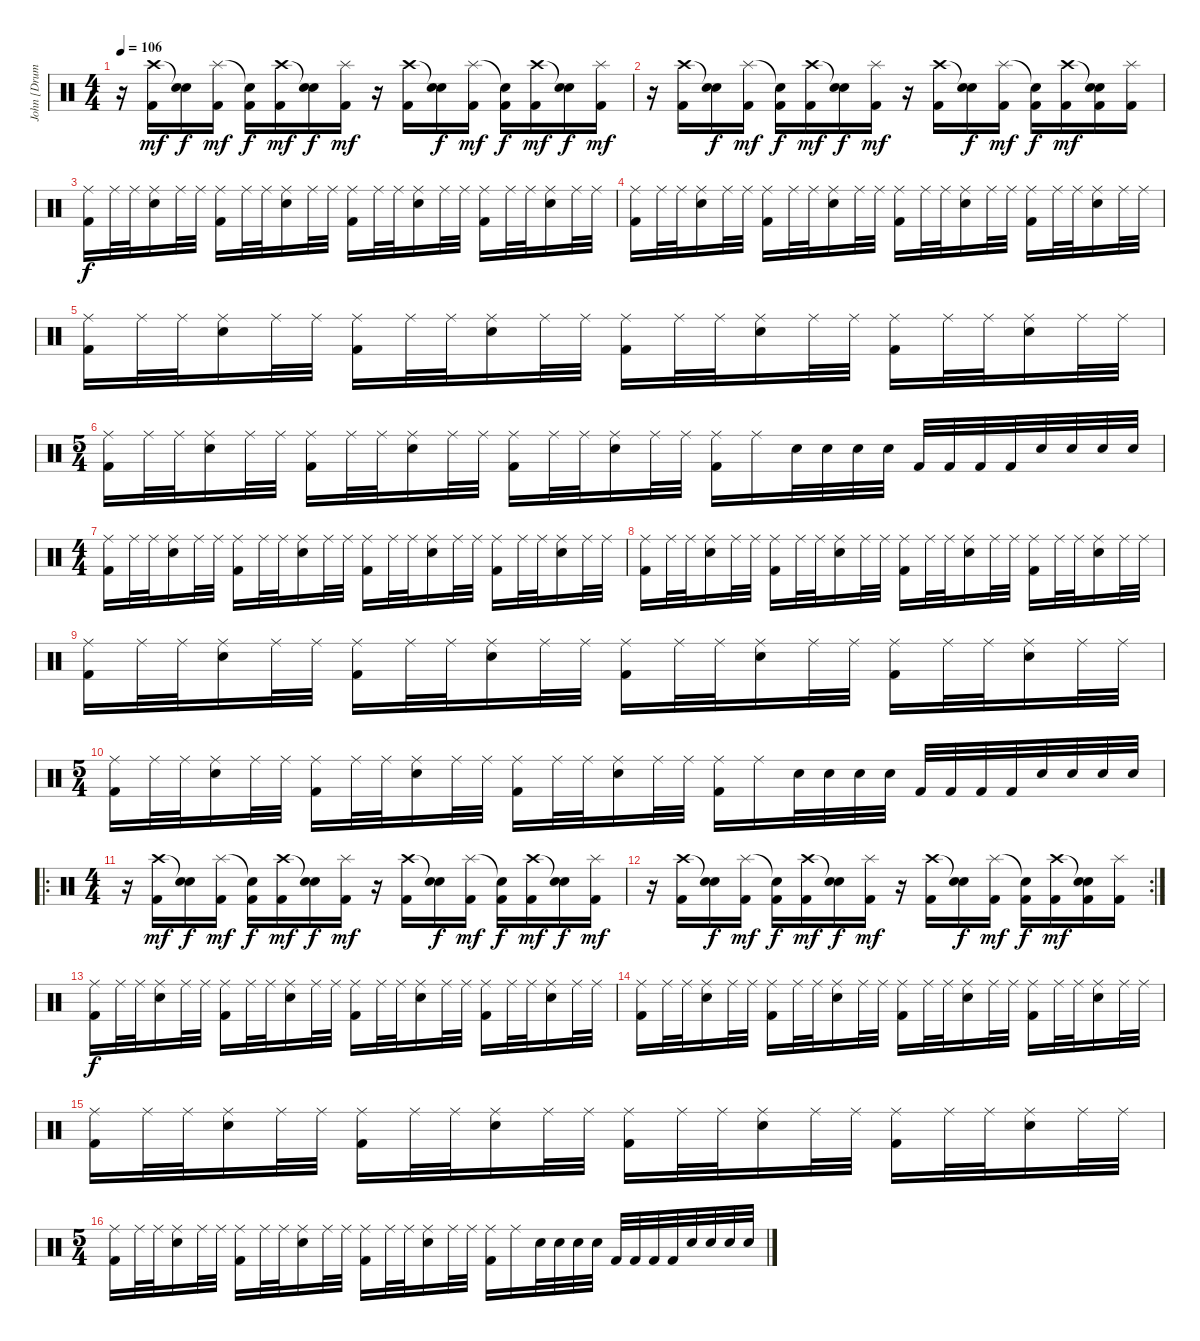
\track ("John [Drums]" "John [Drum") {instrument percussion}
\staff {score}
\articulation defaults
\ts (4 4)
\tempo 106
\clef neutral
\ks c
r.16{dy mf} ("Crash high (hit)" "Kick (hit) 2").16 ("Snare (hit)"{t} "Electric Snare (hit)").16{dy f} ("Splash (hit)" "Kick (hit) 2").16{dy mf} ("Snare (hit)"{t} "Kick (hit) 2").16{dy f} ("Crash high (hit)" "Kick (hit) 2").16{dy mf} ("Snare (hit)"{t} "Electric Snare (hit)").16{dy f} ("Splash (hit)" "Kick (hit) 2").16{dy mf} r.16 ("Crash high (hit)" "Kick (hit) 2").16 ("Snare (hit)"{t} "Electric Snare (hit)").16{dy f} ("Splash (hit)" "Kick (hit) 2").16{dy mf} ("Snare (hit)"{t} "Kick (hit) 2").16{dy f} ("Crash high (hit)" "Kick (hit) 2").16{dy mf} ("Snare (hit)"{t} "Electric Snare (hit)").16{dy f} ("Splash (hit)" "Kick (hit) 2").16{dy mf} |
r.16 ("Crash high (hit)" "Kick (hit) 2").16 ("Snare (hit)"{t} "Electric Snare (hit)").16{dy f} ("Splash (hit)" "Kick (hit) 2").16{dy mf} ("Snare (hit)"{t} "Kick (hit) 2").16{dy f} ("Crash high (hit)" "Kick (hit) 2").16{dy mf} ("Snare (hit)"{t} "Electric Snare (hit)").16{dy f} ("Splash (hit)" "Kick (hit) 2").16{dy mf} r.16 ("Crash high (hit)" "Kick (hit) 2").16 ("Snare (hit)"{t} "Electric Snare (hit)").16{dy f} ("Splash (hit)" "Kick (hit) 2").16{dy mf} ("Snare (hit)"{t} "Kick (hit) 2").16{dy f} ("Crash high (hit)" "Kick (hit) 2").16{dy mf} ("Snare (hit)"{t} "Electric Snare (hit)" "Kick (hit) 2").16 ("Splash (hit)" "Kick (hit) 2").16 |
("Ride (middle)" "Kick (hit) 2").16{dy f} "Ride (middle)".32 "Ride (middle)".32 ("Ride (middle)" "Electric Snare (hit)").16 "Ride (middle)".32 "Ride (middle)".32 ("Ride (middle)" "Kick (hit) 2").16 "Ride (middle)".32 "Ride (middle)".32 ("Ride (middle)" "Electric Snare (hit)").16 "Ride (middle)".32 "Ride (middle)".32 ("Ride (middle)" "Kick (hit) 2").16 "Ride (middle)".32 "Ride (middle)".32 ("Ride (middle)" "Electric Snare (hit)").16 "Ride (middle)".32 "Ride (middle)".32 ("Ride (middle)" "Kick (hit) 2").16 "Ride (middle)".32 "Ride (middle)".32 ("Ride (middle)" "Electric Snare (hit)").16 "Ride (middle)".32 "Ride (middle)".32 |
("Ride (middle)" "Kick (hit) 2").16 "Ride (middle)".32 "Ride (middle)".32 ("Ride (middle)" "Electric Snare (hit)").16 "Ride (middle)".32 "Ride (middle)".32 ("Ride (middle)" "Kick (hit) 2").16 "Ride (middle)".32 "Ride (middle)".32 ("Ride (middle)" "Electric Snare (hit)").16 "Ride (middle)".32 "Ride (middle)".32 ("Ride (middle)" "Kick (hit) 2").16 "Ride (middle)".32 "Ride (middle)".32 ("Ride (middle)" "Electric Snare (hit)").16 "Ride (middle)".32 "Ride (middle)".32 ("Ride (middle)" "Kick (hit) 2").16 "Ride (middle)".32 "Ride (middle)".32 ("Ride (middle)" "Electric Snare (hit)").16 "Ride (middle)".32 "Ride (middle)".32 |
("Ride (middle)" "Kick (hit) 2").16 "Ride (middle)".32 "Ride (middle)".32 ("Ride (middle)" "Electric Snare (hit)").16 "Ride (middle)".32 "Ride (middle)".32 ("Ride (middle)" "Kick (hit) 2").16 "Ride (middle)".32 "Ride (middle)".32 ("Ride (middle)" "Electric Snare (hit)").16 "Ride (middle)".32 "Ride (middle)".32 ("Ride (middle)" "Kick (hit) 2").16 "Ride (middle)".32 "Ride (middle)".32 ("Ride (middle)" "Electric Snare (hit)").16 "Ride (middle)".32 "Ride (middle)".32 ("Ride (middle)" "Kick (hit) 2").16 "Ride (middle)".32 "Ride (middle)".32 ("Ride (middle)" "Electric Snare (hit)").16 "Ride (middle)".32 "Ride (middle)".32 |
\ts (5 4)
("Ride (middle)" "Kick (hit) 2").16 "Ride (middle)".32 "Ride (middle)".32 ("Ride (middle)" "Electric Snare (hit)").16 "Ride (middle)".32 "Ride (middle)".32 ("Ride (middle)" "Kick (hit) 2").16 "Ride (middle)".32 "Ride (middle)".32 ("Ride (middle)" "Electric Snare (hit)").16 "Ride (middle)".32 "Ride (middle)".32 ("Ride (middle)" "Kick (hit) 2").16 "Ride (middle)".32 "Ride (middle)".32 ("Ride (middle)" "Electric Snare (hit)").16 "Ride (middle)".32 "Ride (middle)".32 ("Ride (middle)" "Kick (hit) 2").16 "Ride (middle)".16 "Electric Snare (hit)".32 "Electric Snare (hit)".32 "Electric Snare (hit)".32 "Electric Snare (hit)".32 "Kick (hit) 2".32 "Kick (hit) 2".32 "Kick (hit) 2".32 "Kick (hit) 2".32 "Electric Snare (hit)".32 "Electric Snare (hit)".32 "Electric Snare (hit)".32 "Electric Snare (hit)".32 |
\ts (4 4)
("Ride (middle)" "Kick (hit) 2").16 "Ride (middle)".32 "Ride (middle)".32 ("Ride (middle)" "Electric Snare (hit)").16 "Ride (middle)".32 "Ride (middle)".32 ("Ride (middle)" "Kick (hit) 2").16 "Ride (middle)".32 "Ride (middle)".32 ("Ride (middle)" "Electric Snare (hit)").16 "Ride (middle)".32 "Ride (middle)".32 ("Ride (middle)" "Kick (hit) 2").16 "Ride (middle)".32 "Ride (middle)".32 ("Ride (middle)" "Electric Snare (hit)").16 "Ride (middle)".32 "Ride (middle)".32 ("Ride (middle)" "Kick (hit) 2").16 "Ride (middle)".32 "Ride (middle)".32 ("Ride (middle)" "Electric Snare (hit)").16 "Ride (middle)".32 "Ride (middle)".32 |
("Ride (middle)" "Kick (hit) 2").16 "Ride (middle)".32 "Ride (middle)".32 ("Ride (middle)" "Electric Snare (hit)").16 "Ride (middle)".32 "Ride (middle)".32 ("Ride (middle)" "Kick (hit) 2").16 "Ride (middle)".32 "Ride (middle)".32 ("Ride (middle)" "Electric Snare (hit)").16 "Ride (middle)".32 "Ride (middle)".32 ("Ride (middle)" "Kick (hit) 2").16 "Ride (middle)".32 "Ride (middle)".32 ("Ride (middle)" "Electric Snare (hit)").16 "Ride (middle)".32 "Ride (middle)".32 ("Ride (middle)" "Kick (hit) 2").16 "Ride (middle)".32 "Ride (middle)".32 ("Ride (middle)" "Electric Snare (hit)").16 "Ride (middle)".32 "Ride (middle)".32 |
("Ride (middle)" "Kick (hit) 2").16 "Ride (middle)".32 "Ride (middle)".32 ("Ride (middle)" "Electric Snare (hit)").16 "Ride (middle)".32 "Ride (middle)".32 ("Ride (middle)" "Kick (hit) 2").16 "Ride (middle)".32 "Ride (middle)".32 ("Ride (middle)" "Electric Snare (hit)").16 "Ride (middle)".32 "Ride (middle)".32 ("Ride (middle)" "Kick (hit) 2").16 "Ride (middle)".32 "Ride (middle)".32 ("Ride (middle)" "Electric Snare (hit)").16 "Ride (middle)".32 "Ride (middle)".32 ("Ride (middle)" "Kick (hit) 2").16 "Ride (middle)".32 "Ride (middle)".32 ("Ride (middle)" "Electric Snare (hit)").16 "Ride (middle)".32 "Ride (middle)".32 |
\ts (5 4)
("Ride (middle)" "Kick (hit) 2").16 "Ride (middle)".32 "Ride (middle)".32 ("Ride (middle)" "Electric Snare (hit)").16 "Ride (middle)".32 "Ride (middle)".32 ("Ride (middle)" "Kick (hit) 2").16 "Ride (middle)".32 "Ride (middle)".32 ("Ride (middle)" "Electric Snare (hit)").16 "Ride (middle)".32 "Ride (middle)".32 ("Ride (middle)" "Kick (hit) 2").16 "Ride (middle)".32 "Ride (middle)".32 ("Ride (middle)" "Electric Snare (hit)").16 "Ride (middle)".32 "Ride (middle)".32 ("Ride (middle)" "Kick (hit) 2").16 "Ride (middle)".16 "Electric Snare (hit)".32 "Electric Snare (hit)".32 "Electric Snare (hit)".32 "Electric Snare (hit)".32 "Kick (hit) 2".32 "Kick (hit) 2".32 "Kick (hit) 2".32 "Kick (hit) 2".32 "Electric Snare (hit)".32 "Electric Snare (hit)".32 "Electric Snare (hit)".32 "Electric Snare (hit)".32 |
\ro
\ts (4 4)
r.16 ("Crash high (hit)" "Kick (hit) 2").16{dy mf} ("Snare (hit)"{t} "Electric Snare (hit)").16{dy f} ("Splash (hit)" "Kick (hit) 2").16{dy mf} ("Snare (hit)"{t} "Kick (hit) 2").16{dy f} ("Crash high (hit)" "Kick (hit) 2").16{dy mf} ("Snare (hit)"{t} "Electric Snare (hit)").16{dy f} ("Splash (hit)" "Kick (hit) 2").16{dy mf} r.16 ("Crash high (hit)" "Kick (hit) 2").16 ("Snare (hit)"{t} "Electric Snare (hit)").16{dy f} ("Splash (hit)" "Kick (hit) 2").16{dy mf} ("Snare (hit)"{t} "Kick (hit) 2").16{dy f} ("Crash high (hit)" "Kick (hit) 2").16{dy mf} ("Snare (hit)"{t} "Electric Snare (hit)").16{dy f} ("Splash (hit)" "Kick (hit) 2").16{dy mf} |
\rc 2
r.16 ("Crash high (hit)" "Kick (hit) 2").16 ("Snare (hit)"{t} "Electric Snare (hit)").16{dy f} ("Splash (hit)" "Kick (hit) 2").16{dy mf} ("Snare (hit)"{t} "Kick (hit) 2").16{dy f} ("Crash high (hit)" "Kick (hit) 2").16{dy mf} ("Snare (hit)"{t} "Electric Snare (hit)").16{dy f} ("Splash (hit)" "Kick (hit) 2").16{dy mf} r.16 ("Crash high (hit)" "Kick (hit) 2").16 ("Snare (hit)"{t} "Electric Snare (hit)").16{dy f} ("Splash (hit)" "Kick (hit) 2").16{dy mf} ("Snare (hit)"{t} "Kick (hit) 2").16{dy f} ("Crash high (hit)" "Kick (hit) 2").16{dy mf} ("Snare (hit)"{t} "Electric Snare (hit)" "Kick (hit) 2").16 ("Splash (hit)" "Kick (hit) 2").16 |
("Ride (middle)" "Kick (hit) 2").16{dy f} "Ride (middle)".32 "Ride (middle)".32 ("Ride (middle)" "Electric Snare (hit)").16 "Ride (middle)".32 "Ride (middle)".32 ("Ride (middle)" "Kick (hit) 2").16 "Ride (middle)".32 "Ride (middle)".32 ("Ride (middle)" "Electric Snare (hit)").16 "Ride (middle)".32 "Ride (middle)".32 ("Ride (middle)" "Kick (hit) 2").16 "Ride (middle)".32 "Ride (middle)".32 ("Ride (middle)" "Electric Snare (hit)").16 "Ride (middle)".32 "Ride (middle)".32 ("Ride (middle)" "Kick (hit) 2").16 "Ride (middle)".32 "Ride (middle)".32 ("Ride (middle)" "Electric Snare (hit)").16 "Ride (middle)".32 "Ride (middle)".32 |
("Ride (middle)" "Kick (hit) 2").16 "Ride (middle)".32 "Ride (middle)".32 ("Ride (middle)" "Electric Snare (hit)").16 "Ride (middle)".32 "Ride (middle)".32 ("Ride (middle)" "Kick (hit) 2").16 "Ride (middle)".32 "Ride (middle)".32 ("Ride (middle)" "Electric Snare (hit)").16 "Ride (middle)".32 "Ride (middle)".32 ("Ride (middle)" "Kick (hit) 2").16 "Ride (middle)".32 "Ride (middle)".32 ("Ride (middle)" "Electric Snare (hit)").16 "Ride (middle)".32 "Ride (middle)".32 ("Ride (middle)" "Kick (hit) 2").16 "Ride (middle)".32 "Ride (middle)".32 ("Ride (middle)" "Electric Snare (hit)").16 "Ride (middle)".32 "Ride (middle)".32 |
("Ride (middle)" "Kick (hit) 2").16 "Ride (middle)".32 "Ride (middle)".32 ("Ride (middle)" "Electric Snare (hit)").16 "Ride (middle)".32 "Ride (middle)".32 ("Ride (middle)" "Kick (hit) 2").16 "Ride (middle)".32 "Ride (middle)".32 ("Ride (middle)" "Electric Snare (hit)").16 "Ride (middle)".32 "Ride (middle)".32 ("Ride (middle)" "Kick (hit) 2").16 "Ride (middle)".32 "Ride (middle)".32 ("Ride (middle)" "Electric Snare (hit)").16 "Ride (middle)".32 "Ride (middle)".32 ("Ride (middle)" "Kick (hit) 2").16 "Ride (middle)".32 "Ride (middle)".32 ("Ride (middle)" "Electric Snare (hit)").16 "Ride (middle)".32 "Ride (middle)".32 |
\ts (5 4)
("Ride (middle)" "Kick (hit) 2").16 "Ride (middle)".32 "Ride (middle)".32 ("Ride (middle)" "Electric Snare (hit)").16 "Ride (middle)".32 "Ride (middle)".32 ("Ride (middle)" "Kick (hit) 2").16 "Ride (middle)".32 "Ride (middle)".32 ("Ride (middle)" "Electric Snare (hit)").16 "Ride (middle)".32 "Ride (middle)".32 ("Ride (middle)" "Kick (hit) 2").16 "Ride (middle)".32 "Ride (middle)".32 ("Ride (middle)" "Electric Snare (hit)").16 "Ride (middle)".32 "Ride (middle)".32 ("Ride (middle)" "Kick (hit) 2").16 "Ride (middle)".16 "Electric Snare (hit)".32 "Electric Snare (hit)".32 "Electric Snare (hit)".32 "Electric Snare (hit)".32 "Kick (hit) 2".32 "Kick (hit) 2".32 "Kick (hit) 2".32 "Kick (hit) 2".32 "Electric Snare (hit)".32 "Electric Snare (hit)".32 "Electric Snare (hit)".32 "Electric Snare (hit)".32
